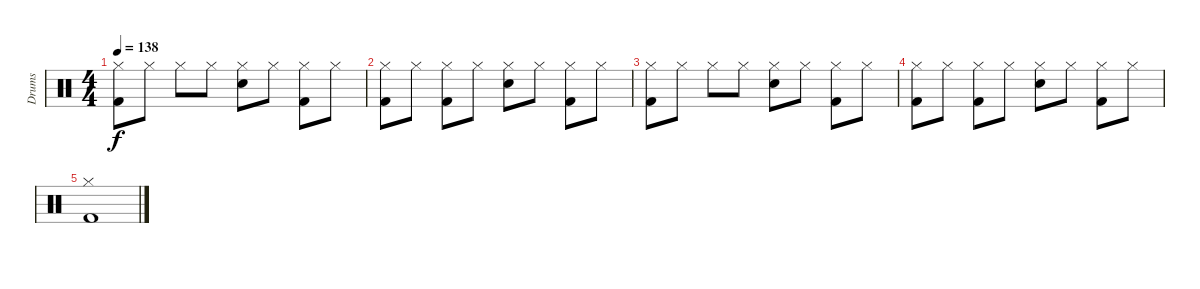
\track ("Drums" "Drums") {instrument percussion}
\staff {score}
\articulation defaults
\ts (4 4)
\tempo 138
\clef neutral
\ks c
("Hi-Hat (closed)" "Kick (hit) 2").8{dy f} "Hi-Hat (closed)".8 "Hi-Hat (closed)".8 "Hi-Hat (closed)".8 ("Hi-Hat (closed)" "Electric Snare (hit)").8 "Hi-Hat (closed)".8 ("Hi-Hat (closed)" "Kick (hit) 2").8 "Hi-Hat (closed)".8 |
("Hi-Hat (closed)" "Kick (hit) 2").8 "Hi-Hat (closed)".8 ("Hi-Hat (closed)" "Kick (hit) 2").8 "Hi-Hat (closed)".8 ("Hi-Hat (closed)" "Electric Snare (hit)").8 "Hi-Hat (closed)".8 ("Hi-Hat (closed)" "Kick (hit) 2").8 "Hi-Hat (closed)".8 |
("Hi-Hat (closed)" "Kick (hit) 2").8 "Hi-Hat (closed)".8 "Hi-Hat (closed)".8 "Hi-Hat (closed)".8 ("Hi-Hat (closed)" "Electric Snare (hit)").8 "Hi-Hat (closed)".8 ("Hi-Hat (closed)" "Kick (hit) 2").8 "Hi-Hat (closed)".8 |
("Hi-Hat (closed)" "Kick (hit) 2").8 "Hi-Hat (closed)".8 ("Hi-Hat (closed)" "Kick (hit) 2").8 "Hi-Hat (closed)".8 ("Hi-Hat (closed)" "Electric Snare (hit)").8 "Hi-Hat (closed)".8 ("Hi-Hat (closed)" "Kick (hit) 2").8 "Hi-Hat (closed)".8 |
("Hi-Hat (closed)" "Kick (hit) 2").1
